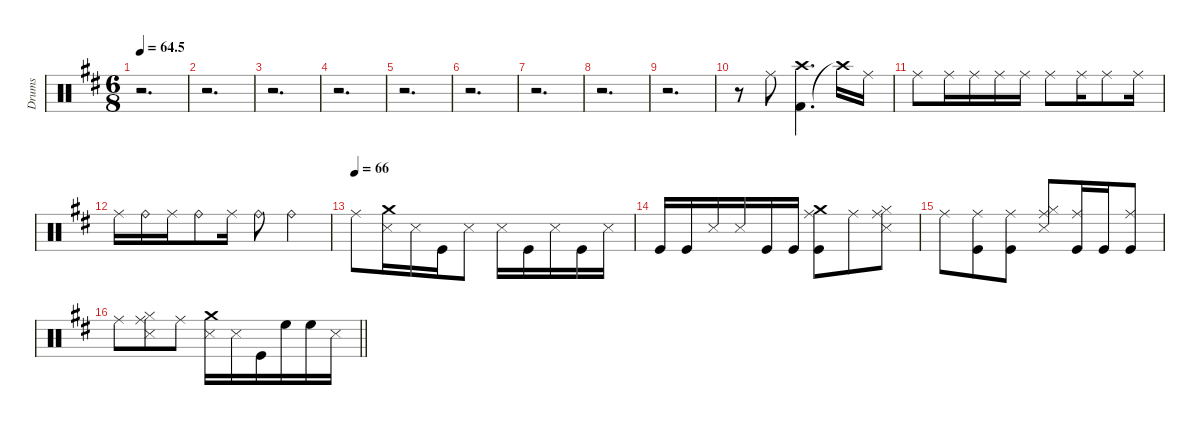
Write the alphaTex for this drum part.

\defaultSystemsLayout 4
\hideDynamics
\bracketExtendMode groupsimilarinstruments
\firstSystemTrackNameMode fullname
\otherSystemsTrackNameOrientation horizontal
\track ("Drums" "drm.") {defaultSystemsLayout 4 instrument percussion}
\staff {score}
\articulation defaults
\ts (6 8)
\beaming (8 3 3)
\tempo
64.5
\accidentals auto
\clef neutral
\ottava regular
\simile none
\ks bminor
r.2{d dy mf beam Down} |
r.2{d beam Down} |
r.2{d beam Down} |
r.2{d beam Down} |
r.2{d beam Down} |
r.2{d beam Down} |
r.2{d beam Down} |
r.2{d beam Down} |
r.2{d beam Down} |
r.8{beam Down} "Ride (middle)"{acc forcenatural}.8{beam Down} ("Kick (hit) 2"{acc forcenatural} "Crash high (hit)"{acc forcenatural}).4{d beam Down} "Crash high (hit)"{t acc forcenatural}.16{beam Down} "Ride (middle)"{acc forcenatural}.16{beam Down} |
"Ride (middle)"{acc forcenatural}.8{beam Down} "Ride (middle)"{acc forcenatural}.16{beam Down} "Ride (middle)"{acc forcenatural}.16{beam Down} "Ride (middle)"{acc forcenatural}.16{beam Down} "Ride (middle)"{acc forcenatural}.16{beam Down} "Ride (middle)"{acc forcenatural}.8{beam Down} "Ride (middle)"{acc forcenatural}.16{beam Down} "Ride (middle)"{acc forcenatural}.8{beam Down} "Ride (middle)"{acc forcenatural}.16{beam Down} |
"Ride (middle)"{acc forcenatural}.16{beam Down} "Ride (bell)"{acc forcenatural}.16{beam Down} "Ride (middle)"{acc forcenatural}.16{beam Down} "Ride (bell)"{acc forcenatural}.8{beam Down} "Ride (middle)"{acc forcenatural}.16{beam Down} "Ride (bell)"{acc forcenatural}.8{beam Down} "Ride (bell)"{acc forcenatural}.4{beam Down} |
\tempo (66)
"Ride (middle)"{acc forcenatural}.8{dy f beam Down} ("Snare (side stick) 3"{acc forcenatural} "Crash medium (hit)"{acc forcenatural}).16{dy mp beam Down} "Snare (side stick) 3"{acc forcenatural}.16{dy pp beam Down} "Kick (hit)"{acc forcenatural}.16{dy f beam Down} "Snare (side stick) 3"{acc forcenatural}.8{beam Down} "Snare (side stick) 3"{acc forcenatural}.16{dy p beam Down} "Kick (hit)"{acc forcenatural}.16{dy f beam Down} "Snare (side stick) 3"{acc forcenatural}.16{dy mp beam Down} "Kick (hit)"{acc forcenatural}.16{dy f beam Down} "Snare (side stick) 3"{acc forcenatural}.16{dy mf beam Down} |
"Kick (hit)"{acc forcenatural}.16{dy f beam Up} "Kick (hit)"{acc forcenatural}.16{beam Up} "Snare (side stick) 3"{acc forcenatural}.16{dy fff beam Up} "Snare (side stick) 3"{acc forcenatural}.16{dy mf beam Up} "Kick (hit)"{acc forcenatural}.16{dy f beam Up} "Kick (hit)"{acc forcenatural}.16{beam Up} ("Crash medium (hit)"{acc forcenatural} "Kick (hit)"{acc forcenatural} "Ride (middle)"{acc #}).8{dy fff beam Down} "Ride (middle)"{acc #}.8{dy f beam Down} ("Snare (side stick) 3"{acc forcenatural} "Hi-Hat (closed)"{acc #} "Ride (middle)"{acc #}).8{dy fff beam Down} |
"Ride (middle)"{acc #}.8{dy f beam Down} ("Kick (hit)"{acc forcenatural} "Ride (middle)"{acc #}).8{dy fff beam Down} ("Kick (hit)"{acc forcenatural} "Ride (middle)"{acc #}).8{dy f beam Down} ("Snare (side stick) 3"{acc forcenatural} "Hi-Hat (closed)"{acc #} "Ride (middle)"{acc #}).8{dy fff beam Up} ("Kick (hit)"{acc forcenatural} "Ride (middle)"{acc #}).16{dy mp beam Up} "Kick (hit)"{acc forcenatural}.16{dy mf beam Up} ("Kick (hit)"{acc forcenatural} "Ride (middle)"{acc #}).8{dy fff beam Up} |
\barLineRight lightlight "Ride (middle)"{acc #}.8{dy f beam Down}
("Snare (side stick) 3"{acc forcenatural} "Hi-Hat (closed)"{acc #} "Ride (middle)"{acc #}).8{dy fff beam Down} "Ride (middle)"{acc #}.8{beam Down} ("Snare (side stick) 3"{acc forcenatural} "Crash medium (hit)"{acc forcenatural}).16{beam Down} "Snare (side stick) 3"{acc forcenatural}.16{dy p beam Down} "Kick (hit)"{acc forcenatural}.16{dy f beam Down} "High Floor Tom (hit)"{acc forcenatural}.16{dy mf beam Down} "High Floor Tom (hit)"{acc forcenatural}.16{dy fff beam Down} "Snare (side stick) 3"{acc forcenatural}.16{dy pp beam Down}
